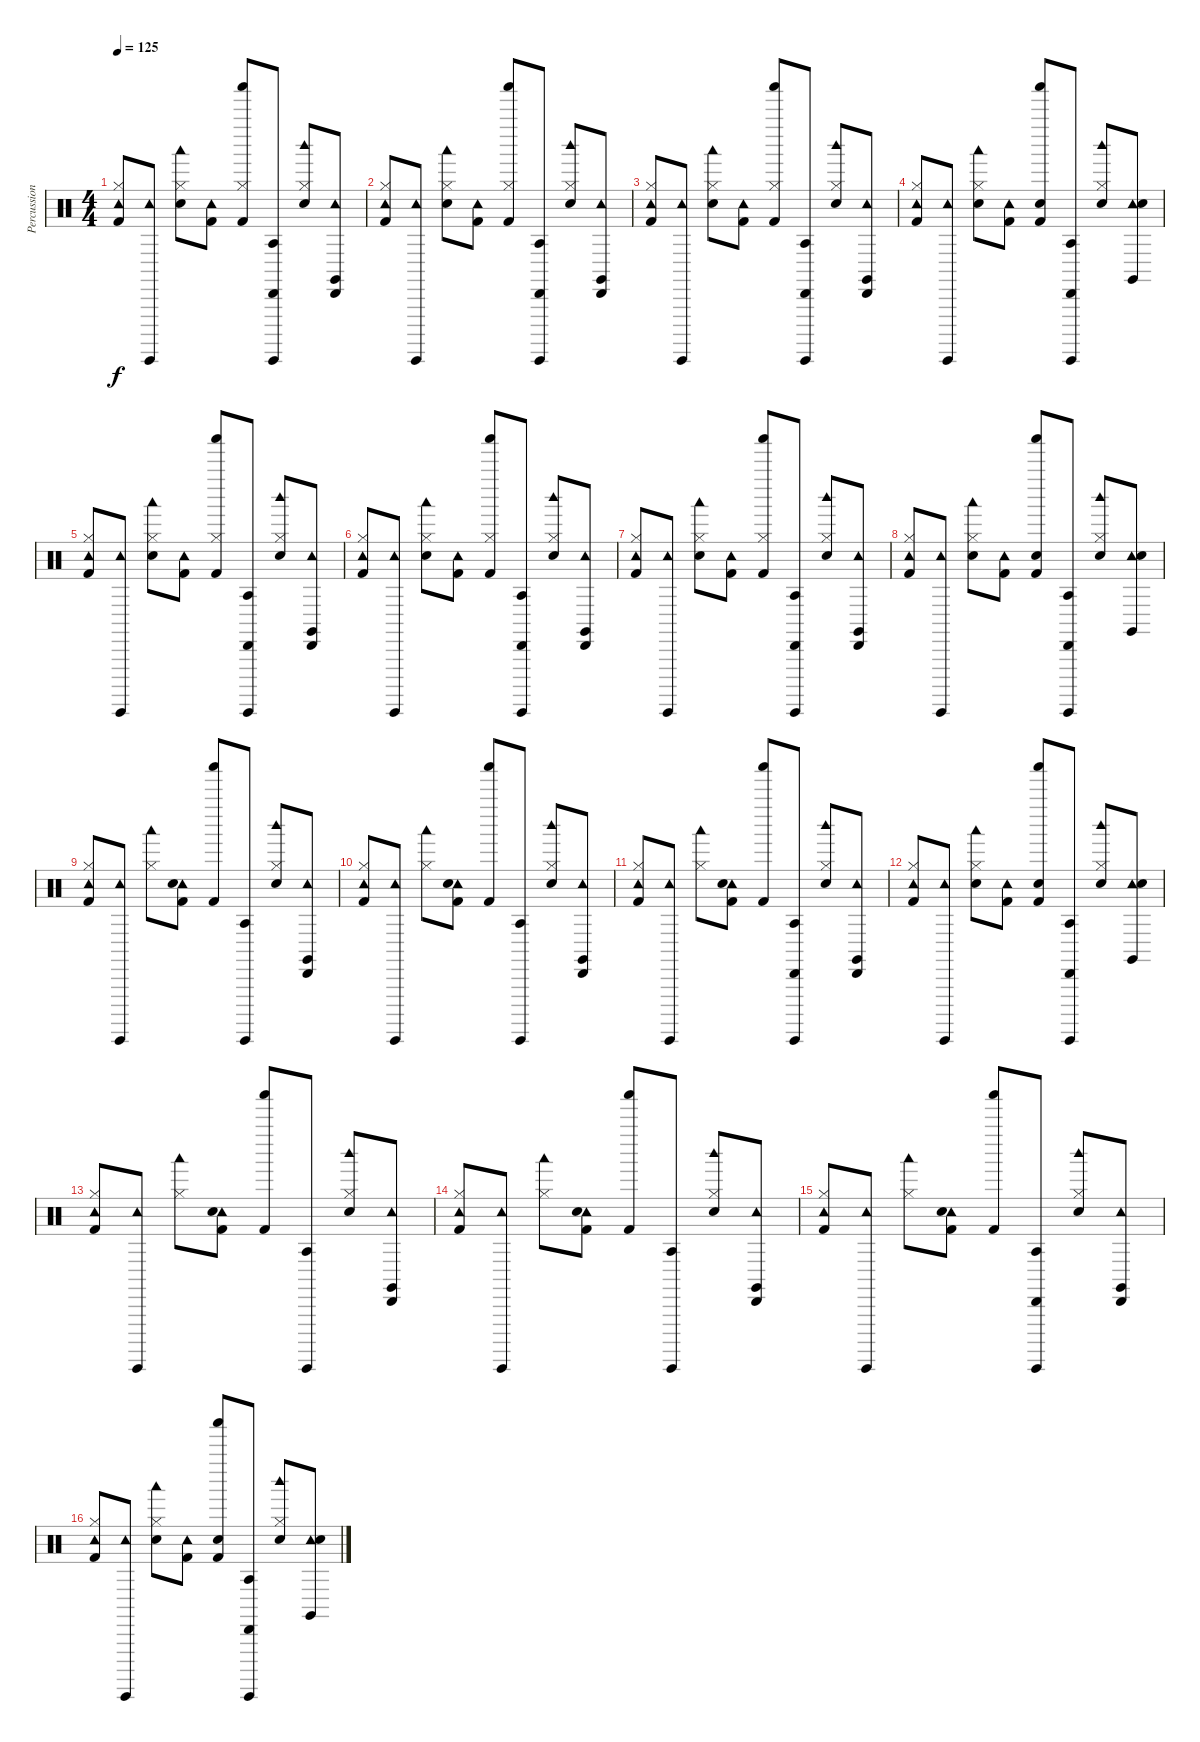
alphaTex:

\track ("Percussion" "Percussion") {instrument percussion}
\staff {score}
\articulation defaults
\ts (4 4)
\tempo 125
\clef neutral
\ks c
("Tambourine (hit)" "Hi-Hat (closed)" "Kick (hit) 2").8{dy f} ("Tambourine (hit)" "Guiro (hit)").8 ("Electric Snare (hit)" "Hi-Hat (closed)" "Woodblock low (hit)").8 ("Tambourine (hit)" "Kick (hit) 2").8 ("Shaker (hit)" "Hi-Hat (closed)" "Kick (hit) 2").8 ("Cabasa (hit)" "Guiro (hit)" "Agogo tow (hit)").8 ("Electric Snare (hit)" "Hi-Hat (closed)" "Woodblock high (hit)").8 ("Tambourine (hit)" "Cabasa (hit)" "Claves (hit)").8 |
("Tambourine (hit)" "Hi-Hat (closed)" "Kick (hit) 2").8 ("Tambourine (hit)" "Guiro (hit)").8 ("Electric Snare (hit)" "Hi-Hat (closed)" "Woodblock low (hit)").8 ("Tambourine (hit)" "Kick (hit) 2").8 ("Shaker (hit)" "Hi-Hat (closed)" "Kick (hit) 2").8 ("Cabasa (hit)" "Guiro (hit)" "Agogo tow (hit)").8 ("Electric Snare (hit)" "Hi-Hat (closed)" "Woodblock high (hit)").8 ("Tambourine (hit)" "Cabasa (hit)" "Claves (hit)").8 |
("Tambourine (hit)" "Hi-Hat (closed)" "Kick (hit) 2").8 ("Tambourine (hit)" "Guiro (hit)").8 ("Electric Snare (hit)" "Hi-Hat (closed)" "Woodblock low (hit)").8 ("Tambourine (hit)" "Kick (hit) 2").8 ("Shaker (hit)" "Hi-Hat (closed)" "Kick (hit) 2").8 ("Cabasa (hit)" "Guiro (hit)" "Agogo tow (hit)").8 ("Electric Snare (hit)" "Hi-Hat (closed)" "Woodblock high (hit)").8 ("Tambourine (hit)" "Cabasa (hit)" "Claves (hit)").8 |
("Tambourine (hit)" "Hi-Hat (closed)" "Kick (hit) 2").8 ("Tambourine (hit)" "Guiro (hit)").8 ("Electric Snare (hit)" "Hi-Hat (closed)" "Woodblock low (hit)").8 ("Tambourine (hit)" "Kick (hit) 2").8 ("Shaker (hit)" "Electric Snare (hit)" "Kick (hit) 2").8 ("Cabasa (hit)" "Guiro (hit)" "Agogo tow (hit)").8 ("Electric Snare (hit)" "Hi-Hat (closed)" "Woodblock high (hit)").8 ("Tambourine (hit)" "Electric Snare (hit)" "Claves (hit)").8 |
("Tambourine (hit)" "Hi-Hat (closed)" "Kick (hit) 2").8 ("Tambourine (hit)" "Guiro (hit)").8 ("Electric Snare (hit)" "Hi-Hat (closed)" "Woodblock low (hit)").8 ("Tambourine (hit)" "Kick (hit) 2").8 ("Shaker (hit)" "Hi-Hat (closed)" "Kick (hit) 2").8 ("Cabasa (hit)" "Guiro (hit)" "Agogo tow (hit)").8 ("Electric Snare (hit)" "Hi-Hat (closed)" "Woodblock high (hit)").8 ("Tambourine (hit)" "Cabasa (hit)" "Claves (hit)").8 |
("Tambourine (hit)" "Hi-Hat (closed)" "Kick (hit) 2").8 ("Tambourine (hit)" "Guiro (hit)").8 ("Electric Snare (hit)" "Hi-Hat (closed)" "Woodblock low (hit)").8 ("Tambourine (hit)" "Kick (hit) 2").8 ("Shaker (hit)" "Hi-Hat (closed)" "Kick (hit) 2").8 ("Cabasa (hit)" "Guiro (hit)" "Agogo tow (hit)").8 ("Electric Snare (hit)" "Hi-Hat (closed)" "Woodblock high (hit)").8 ("Tambourine (hit)" "Cabasa (hit)" "Claves (hit)").8 |
("Tambourine (hit)" "Hi-Hat (closed)" "Kick (hit) 2").8 ("Tambourine (hit)" "Guiro (hit)").8 ("Electric Snare (hit)" "Hi-Hat (closed)" "Woodblock low (hit)").8 ("Tambourine (hit)" "Kick (hit) 2").8 ("Shaker (hit)" "Hi-Hat (closed)" "Kick (hit) 2").8 ("Cabasa (hit)" "Guiro (hit)" "Agogo tow (hit)").8 ("Electric Snare (hit)" "Hi-Hat (closed)" "Woodblock high (hit)").8 ("Tambourine (hit)" "Cabasa (hit)" "Claves (hit)").8 |
("Tambourine (hit)" "Hi-Hat (closed)" "Kick (hit) 2").8 ("Tambourine (hit)" "Guiro (hit)").8 ("Electric Snare (hit)" "Hi-Hat (closed)" "Woodblock low (hit)").8 ("Tambourine (hit)" "Kick (hit) 2").8 ("Shaker (hit)" "Electric Snare (hit)" "Kick (hit) 2").8 ("Cabasa (hit)" "Guiro (hit)" "Agogo tow (hit)").8 ("Electric Snare (hit)" "Hi-Hat (closed)" "Woodblock high (hit)").8 ("Tambourine (hit)" "Electric Snare (hit)" "Claves (hit)").8 |
("Tambourine (hit)" "Hi-Hat (closed)" "Kick (hit) 2").8 ("Tambourine (hit)" "Guiro (hit)").8 ("Hi-Hat (closed)" "Woodblock low (hit)").8 ("Tambourine (hit)" "Electric Snare (hit)" "Kick (hit) 2").8 ("Shaker (hit)" "Kick (hit) 2").8 ("Guiro (hit)" "Agogo tow (hit)").8 ("Electric Snare (hit)" "Hi-Hat (closed)" "Woodblock high (hit)").8 ("Tambourine (hit)" "Cabasa (hit)" "Claves (hit)").8 |
("Tambourine (hit)" "Hi-Hat (closed)" "Kick (hit) 2").8 ("Tambourine (hit)" "Guiro (hit)").8 ("Hi-Hat (closed)" "Woodblock low (hit)").8 ("Tambourine (hit)" "Electric Snare (hit)" "Kick (hit) 2").8 ("Shaker (hit)" "Kick (hit) 2").8 ("Guiro (hit)" "Agogo tow (hit)").8 ("Electric Snare (hit)" "Hi-Hat (closed)" "Woodblock high (hit)").8 ("Tambourine (hit)" "Cabasa (hit)" "Claves (hit)").8 |
("Tambourine (hit)" "Hi-Hat (closed)" "Kick (hit) 2").8 ("Tambourine (hit)" "Guiro (hit)").8 ("Hi-Hat (closed)" "Woodblock low (hit)").8 ("Tambourine (hit)" "Electric Snare (hit)" "Kick (hit) 2").8 ("Shaker (hit)" "Kick (hit) 2").8 ("Cabasa (hit)" "Guiro (hit)" "Agogo tow (hit)").8 ("Electric Snare (hit)" "Hi-Hat (closed)" "Woodblock high (hit)").8 ("Tambourine (hit)" "Cabasa (hit)" "Claves (hit)").8 |
("Tambourine (hit)" "Hi-Hat (closed)" "Kick (hit) 2").8 ("Tambourine (hit)" "Guiro (hit)").8 ("Electric Snare (hit)" "Hi-Hat (closed)" "Woodblock low (hit)").8 ("Tambourine (hit)" "Kick (hit) 2").8 ("Shaker (hit)" "Electric Snare (hit)" "Kick (hit) 2").8 ("Cabasa (hit)" "Guiro (hit)" "Agogo tow (hit)").8 ("Electric Snare (hit)" "Hi-Hat (closed)" "Woodblock high (hit)").8 ("Tambourine (hit)" "Electric Snare (hit)" "Claves (hit)").8 |
("Tambourine (hit)" "Hi-Hat (closed)" "Kick (hit) 2").8 ("Tambourine (hit)" "Guiro (hit)").8 ("Hi-Hat (closed)" "Woodblock low (hit)").8 ("Tambourine (hit)" "Electric Snare (hit)" "Kick (hit) 2").8 ("Shaker (hit)" "Kick (hit) 2").8 ("Guiro (hit)" "Agogo tow (hit)").8 ("Electric Snare (hit)" "Hi-Hat (closed)" "Woodblock high (hit)").8 ("Tambourine (hit)" "Cabasa (hit)" "Claves (hit)").8 |
("Tambourine (hit)" "Hi-Hat (closed)" "Kick (hit) 2").8 ("Tambourine (hit)" "Guiro (hit)").8 ("Hi-Hat (closed)" "Woodblock low (hit)").8 ("Tambourine (hit)" "Electric Snare (hit)" "Kick (hit) 2").8 ("Shaker (hit)" "Kick (hit) 2").8 ("Guiro (hit)" "Agogo tow (hit)").8 ("Electric Snare (hit)" "Hi-Hat (closed)" "Woodblock high (hit)").8 ("Tambourine (hit)" "Cabasa (hit)" "Claves (hit)").8 |
("Tambourine (hit)" "Hi-Hat (closed)" "Kick (hit) 2").8 ("Tambourine (hit)" "Guiro (hit)").8 ("Hi-Hat (closed)" "Woodblock low (hit)").8 ("Tambourine (hit)" "Electric Snare (hit)" "Kick (hit) 2").8 ("Shaker (hit)" "Kick (hit) 2").8 ("Cabasa (hit)" "Guiro (hit)" "Agogo tow (hit)").8 ("Electric Snare (hit)" "Hi-Hat (closed)" "Woodblock high (hit)").8 ("Tambourine (hit)" "Cabasa (hit)" "Claves (hit)").8 |
("Tambourine (hit)" "Hi-Hat (closed)" "Kick (hit) 2").8 ("Tambourine (hit)" "Guiro (hit)").8 ("Electric Snare (hit)" "Hi-Hat (closed)" "Woodblock low (hit)").8 ("Tambourine (hit)" "Kick (hit) 2").8 ("Shaker (hit)" "Electric Snare (hit)" "Kick (hit) 2").8 ("Cabasa (hit)" "Guiro (hit)" "Agogo tow (hit)").8 ("Electric Snare (hit)" "Hi-Hat (closed)" "Woodblock high (hit)").8 ("Tambourine (hit)" "Electric Snare (hit)" "Claves (hit)").8
